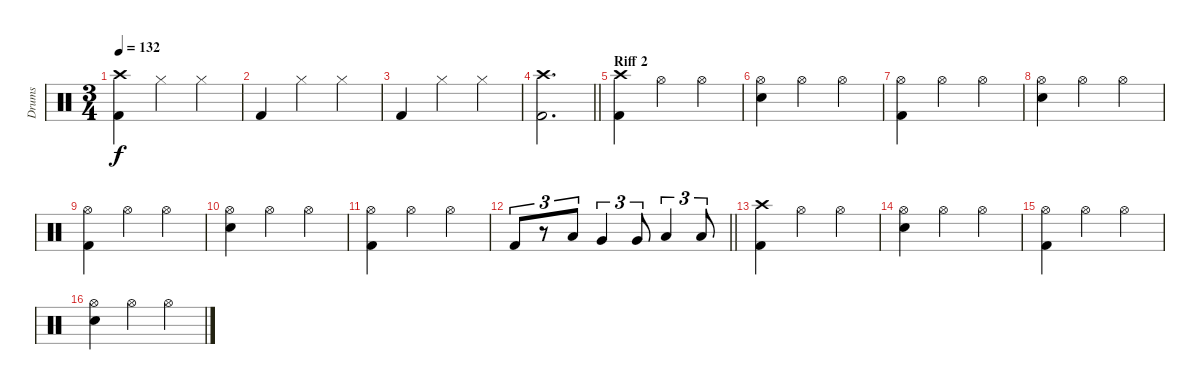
\track ("Drums" "Drums") {instrument percussion}
\staff {score}
\articulation defaults
\ts (3 4)
\tempo 132
\clef neutral
\ks c
("Crash high (hit)" "Kick (hit) 2").4{dy f} "Hi-Hat (closed)".4 "Hi-Hat (closed)".4 |
"Kick (hit) 2".4 "Hi-Hat (closed)".4 "Hi-Hat (closed)".4 |
"Kick (hit) 2".4 "Hi-Hat (closed)".4 "Hi-Hat (closed)".4 |
\barLineRight lightlight
("Crash high (hit)" "Kick (hit) 2").2{d} |
\section ("" "Riff 2")
("Crash high (hit)" "Kick (hit) 2").4 "Hi-Hat (open)".4 "Hi-Hat (open)".4 |
("Hi-Hat (open)" "Electric Snare (hit)").4 "Hi-Hat (open)".4 "Hi-Hat (open)".4 |
("Hi-Hat (open)" "Kick (hit) 2").4 "Hi-Hat (open)".4 "Hi-Hat (open)".4 |
("Hi-Hat (open)" "Electric Snare (hit)").4 "Hi-Hat (open)".4 "Hi-Hat (open)".4 |
("Hi-Hat (open)" "Kick (hit) 2").4 "Hi-Hat (open)".4 "Hi-Hat (open)".4 |
("Hi-Hat (open)" "Electric Snare (hit)").4 "Hi-Hat (open)".4 "Hi-Hat (open)".4 |
("Hi-Hat (open)" "Kick (hit) 2").4 "Hi-Hat (open)".4 "Hi-Hat (open)".4 |
\barLineRight lightlight "Kick (hit) 2".8{tu (3 2)}
r.8{tu (3 2)} "Low Tom (hit)".8{tu (3 2)} "Very Low Tom (hit)".4{tu (3 2)} "Very Low Tom (hit)".8{tu (3 2)} "Low Floor Tom (hit)".4{tu (3 2)} "Low Floor Tom (hit)".8{tu (3 2)} |
("Crash high (hit)" "Kick (hit) 2").4 "Hi-Hat (open)".4 "Hi-Hat (open)".4 |
("Hi-Hat (open)" "Electric Snare (hit)").4 "Hi-Hat (open)".4 "Hi-Hat (open)".4 |
("Hi-Hat (open)" "Kick (hit) 2").4 "Hi-Hat (open)".4 "Hi-Hat (open)".4 |
("Hi-Hat (open)" "Electric Snare (hit)").4 "Hi-Hat (open)".4 "Hi-Hat (open)".4
